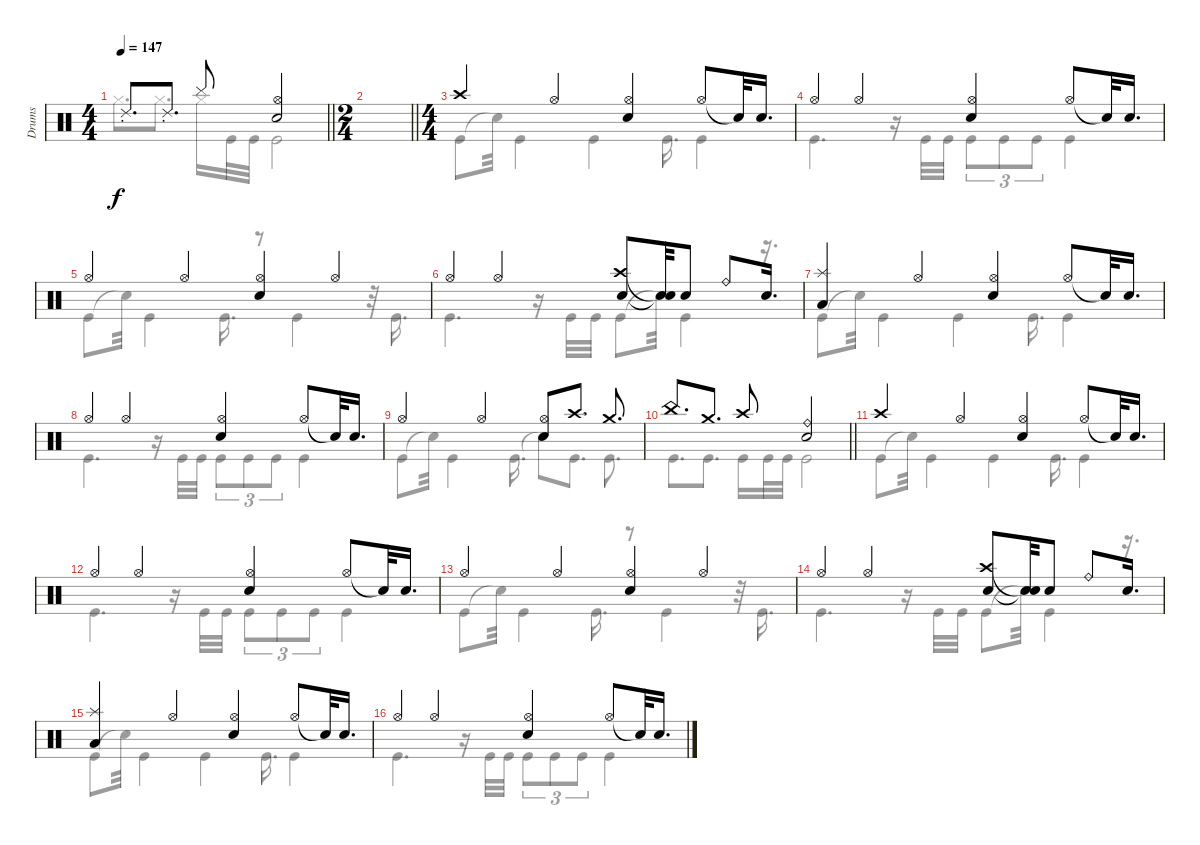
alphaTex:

\track ("Drums" "Drums") {instrument percussion}
\staff
\articulation defaults
\voice
\ts (4 4)
\tempo 147
\clef neutral
\barLineRight lightlight
\ks c "Ride (choke) 2".8{d dy f} "Ride (choke) 2".8{d} "Cymbal (hit)".8
("Hi-Hat (open)" "Electric Snare (hit)").2{volume 13} |
\ts (2 4)
\barLineRight lightlight
|
\ts (4 4)
\section ("" "")
"Crash high (hit)".4 "Hi-Hat (open)".4 ("Hi-Hat (open)" "Electric Snare (hit)").4 "Hi-Hat (open)".8 "Snare (hit)"{t}.32 "Electric Snare (hit)".16{d} |
"Hi-Hat (open)".4 "Hi-Hat (open)".4 ("Hi-Hat (open)" "Electric Snare (hit)").4 "Hi-Hat (open)".8 "Snare (hit)"{t}.32 "Electric Snare (hit)".16{d} |
"Hi-Hat (open)".4 "Hi-Hat (open)".4 ("Hi-Hat (open)" "Electric Snare (hit)").4 "Hi-Hat (open)".4 |
"Hi-Hat (open)".4 "Hi-Hat (open)".4 ("Crash high (hit)" "Electric Snare (hit)").8 ("Snare (hit)"{t} "Snare (hit)"{t}).32 "Electric Snare (hit)".8 "Ride (bell)".8 "Electric Snare (hit)".16{d} |
("Splash (hit)" "Low Floor Tom (hit)").4 "Hi-Hat (open)".4 ("Hi-Hat (open)" "Electric Snare (hit)").4 "Hi-Hat (open)".8 "Snare (hit)"{t}.32 "Electric Snare (hit)".16{d} |
"Hi-Hat (open)".4 "Hi-Hat (open)".4 ("Hi-Hat (open)" "Electric Snare (hit)").4 "Hi-Hat (open)".8 "Snare (hit)"{t}.32 "Electric Snare (hit)".16{d} |
"Hi-Hat (open)".4 "Hi-Hat (open)".4 ("Hi-Hat (open)" "Electric Snare (hit)").8 "Crash high (hit)".8{d} "Crash medium (hit)".8{d} |
\barLineRight lightlight "China (hit)".8{d} "Crash medium (hit)".8{d} "Crash high (hit)".8
("Ride (bell)" "Electric Snare (hit)").2 |
"Crash high (hit)".4 "Hi-Hat (open)".4 ("Hi-Hat (open)" "Electric Snare (hit)").4 "Hi-Hat (open)".8 "Snare (hit)"{t}.32 "Electric Snare (hit)".16{d} |
"Hi-Hat (open)".4 "Hi-Hat (open)".4 ("Hi-Hat (open)" "Electric Snare (hit)").4 "Hi-Hat (open)".8 "Snare (hit)"{t}.32 "Electric Snare (hit)".16{d} |
"Hi-Hat (open)".4 "Hi-Hat (open)".4 ("Hi-Hat (open)" "Electric Snare (hit)").4 "Hi-Hat (open)".4 |
"Hi-Hat (open)".4 "Hi-Hat (open)".4 ("Crash high (hit)" "Electric Snare (hit)").8 ("Snare (hit)"{t} "Snare (hit)"{t}).32 "Electric Snare (hit)".8 "Ride (bell)".8 "Electric Snare (hit)".16{d} |
("Splash (hit)" "Low Floor Tom (hit)").4 "Hi-Hat (open)".4 ("Hi-Hat (open)" "Electric Snare (hit)").4 "Hi-Hat (open)".8 "Snare (hit)"{t}.32 "Electric Snare (hit)".16{d} |
"Hi-Hat (open)".4 "Hi-Hat (open)".4 ("Hi-Hat (open)" "Electric Snare (hit)").4 "Hi-Hat (open)".8 "Snare (hit)"{t}.32 "Electric Snare (hit)".16{d}
\voice
\clef neutral
\ottava regular
\simile none
\barLineRight lightlight
\ks c "Hi-Hat (closed)".8{d dy f} "Hi-Hat (closed)".8{d} "Hi-Hat (closed)".16 "Kick (hit)".32 "Kick (hit)".32 "Kick (hit)".2
|
\barLineRight lightlight
|
"Kick (hit)".8 "Snare (hit)"{t}.32 "Kick (hit)".4 "Kick (hit)".4 "Kick (hit)".16{d} "Kick (hit)".4 |
"Kick (hit)".4{d} r.16 "Kick (hit)".32 "Kick (hit)".32 "Kick (hit)".8{tu (3 2)} "Kick (hit)".8{tu (3 2)} "Kick (hit)".8{tu (3 2)} "Kick (hit)".4 |
"Kick (hit)".8 "Snare (hit)"{t}.32 "Kick (hit)".4 "Kick (hit)".16{d} r.8 "Kick (hit)".4 r.32 "Kick (hit)".16{d} |
"Kick (hit)".4{d} r.16 "Kick (hit)".32 "Kick (hit)".32 "Kick (hit)".8 "Snare (hit)"{t}.32 "Kick (hit)".4 r.16{d} |
"Kick (hit)".8 "Snare (hit)"{t}.32 "Kick (hit)".4 "Kick (hit)".4 "Kick (hit)".16{d} "Kick (hit)".4 |
"Kick (hit)".4{d} r.16 "Kick (hit)".32 "Kick (hit)".32 "Kick (hit)".8{tu (3 2)} "Kick (hit)".8{tu (3 2)} "Kick (hit)".8{tu (3 2)} "Kick (hit)".4 |
"Kick (hit)".8 "Snare (hit)"{t}.32 "Kick (hit)".4 "Kick (hit)".16{d} "Snare (hit)"{t}.8 "Kick (hit)".8{d} "Kick (hit)".8{d} |
\barLineRight lightlight "Kick (hit)".8{d} "Kick (hit)".8{d} "Kick (hit)".16 "Kick (hit)".32 "Kick (hit)".32 "Kick (hit)".2
|
"Kick (hit)".8 "Snare (hit)"{t}.32 "Kick (hit)".4 "Kick (hit)".4 "Kick (hit)".16{d} "Kick (hit)".4 |
"Kick (hit)".4{d} r.16 "Kick (hit)".32 "Kick (hit)".32 "Kick (hit)".8{tu (3 2)} "Kick (hit)".8{tu (3 2)} "Kick (hit)".8{tu (3 2)} "Kick (hit)".4 |
"Kick (hit)".8 "Snare (hit)"{t}.32 "Kick (hit)".4 "Kick (hit)".16{d} r.8 "Kick (hit)".4 r.32 "Kick (hit)".16{d} |
"Kick (hit)".4{d} r.16 "Kick (hit)".32 "Kick (hit)".32 "Kick (hit)".8 "Snare (hit)"{t}.32 "Kick (hit)".4 r.16{d} |
"Kick (hit)".8 "Snare (hit)"{t}.32 "Kick (hit)".4 "Kick (hit)".4 "Kick (hit)".16{d} "Kick (hit)".4 |
"Kick (hit)".4{d} r.16 "Kick (hit)".32 "Kick (hit)".32 "Kick (hit)".8{tu (3 2)} "Kick (hit)".8{tu (3 2)} "Kick (hit)".8{tu (3 2)} "Kick (hit)".4
